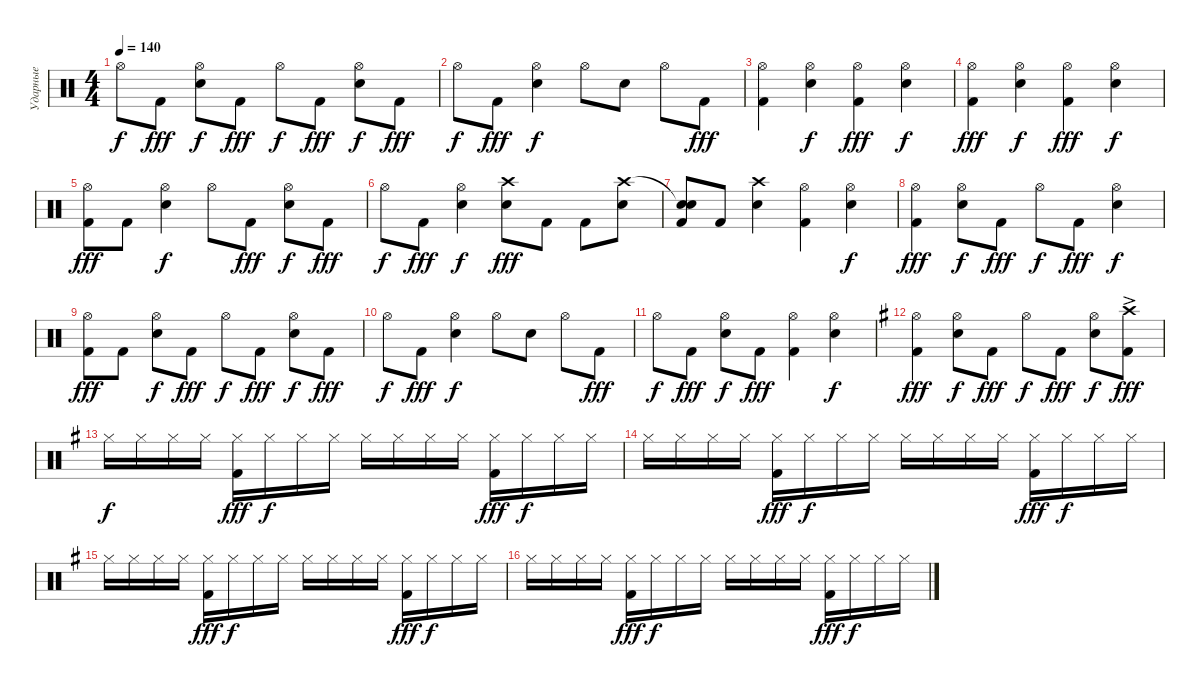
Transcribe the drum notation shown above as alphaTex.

\track ("Ударные" "Ударные") {instrument percussion}
\staff {score}
\articulation defaults
\ts (4 4)
\tempo 140
\clef neutral
\ks c "Hi-Hat (open)".8{dy f} "Kick (hit) 2".8{dy fff}
("Snare (hit) 2" "Hi-Hat (open)").8{dy f} "Kick (hit) 2".8{dy fff} "Hi-Hat (open)".8{dy f} "Kick (hit) 2".8{dy fff} ("Snare (hit) 2" "Hi-Hat (open)").8{dy f} "Kick (hit) 2".8{dy fff} |
"Hi-Hat (open)".8{dy f} "Kick (hit) 2".8{dy fff} ("Snare (hit) 2" "Hi-Hat (open)").4{dy f} "Hi-Hat (open)".8 "Snare (hit) 2".8 "Hi-Hat (open)".8 "Kick (hit) 2".8{dy fff} |
("Kick (hit) 2" "Hi-Hat (open)").4 ("Snare (hit) 2" "Hi-Hat (open)").4{dy f} ("Kick (hit) 2" "Hi-Hat (open)").4{dy fff} ("Snare (hit) 2" "Hi-Hat (open)").4{dy f} |
("Kick (hit) 2" "Hi-Hat (open)").4{dy fff} ("Snare (hit) 2" "Hi-Hat (open)").4{dy f} ("Kick (hit) 2" "Hi-Hat (open)").4{dy fff} ("Snare (hit) 2" "Hi-Hat (open)").4{dy f} |
("Kick (hit) 2" "Hi-Hat (open)").8{dy fff} "Kick (hit) 2".8 ("Snare (hit) 2" "Hi-Hat (open)").4{dy f} "Hi-Hat (open)".8 "Kick (hit) 2".8{dy fff} ("Snare (hit) 2" "Hi-Hat (open)").8{dy f} "Kick (hit) 2".8{dy fff} |
"Hi-Hat (open)".8{dy f} "Kick (hit) 2".8{dy fff} ("Snare (hit) 2" "Hi-Hat (open)").4{dy f} ("Snare (hit) 2" "Crash high (hit)").8{dy fff} "Kick (hit) 2".8 "Kick (hit) 2".8 ("Snare (hit) 2" "Crash high (hit)").8 |
("Kick (hit) 2" "Snare (hit) 2"{t} "Snare (hit)").8 "Kick (hit) 2".8 ("Snare (hit) 2" "Crash high (hit)").4 ("Kick (hit) 2" "Hi-Hat (open)").4 ("Snare (hit) 2" "Hi-Hat (open)").4{dy f} |
("Kick (hit) 2" "Hi-Hat (open)").4{dy fff} ("Snare (hit) 2" "Hi-Hat (open)").8{dy f} "Kick (hit) 2".8{dy fff} "Hi-Hat (open)".8{dy f} "Kick (hit) 2".8{dy fff} ("Snare (hit) 2" "Hi-Hat (open)").4{dy f} |
("Kick (hit) 2" "Hi-Hat (open)").8{dy fff} "Kick (hit) 2".8 ("Snare (hit) 2" "Hi-Hat (open)").8{dy f} "Kick (hit) 2".8{dy fff} "Hi-Hat (open)".8{dy f} "Kick (hit) 2".8{dy fff} ("Snare (hit) 2" "Hi-Hat (open)").8{dy f} "Kick (hit) 2".8{dy fff} |
"Hi-Hat (open)".8{dy f} "Kick (hit) 2".8{dy fff} ("Snare (hit) 2" "Hi-Hat (open)").4{dy f} "Hi-Hat (open)".8 "Snare (hit) 2".8 "Hi-Hat (open)".8 "Kick (hit) 2".8{dy fff} |
"Hi-Hat (open)".8{dy f} "Kick (hit) 2".8{dy fff} ("Snare (hit) 2" "Hi-Hat (open)").8{dy f} "Kick (hit) 2".8{dy fff} ("Kick (hit) 2" "Hi-Hat (open)").4 ("Snare (hit) 2" "Hi-Hat (open)").4{dy f} |
\ks g
("Kick (hit) 2" "Hi-Hat (open)").4{dy fff} ("Snare (hit) 2" "Hi-Hat (open)").8{dy f} "Kick (hit) 2".8{dy fff} "Hi-Hat (open)".8{dy f} "Kick (hit) 2".8{dy fff} ("Snare (hit) 2" "Hi-Hat (open)").8{dy f} ("Kick (hit) 2"{ac} "Crash high (hit)").8{dy fff} |
"Hi-Hat (closed)".16{dy f} "Hi-Hat (closed)".16 "Hi-Hat (closed)".16 "Hi-Hat (closed)".16 ("Hi-Hat (closed)" "Kick (hit) 2").16{dy fff} "Hi-Hat (closed)".16{dy f} "Hi-Hat (closed)".16 "Hi-Hat (closed)".16 "Hi-Hat (closed)".16 "Hi-Hat (closed)".16 "Hi-Hat (closed)".16 "Hi-Hat (closed)".16 ("Hi-Hat (closed)" "Kick (hit) 2").16{dy fff} "Hi-Hat (closed)".16{dy f} "Hi-Hat (closed)".16 "Hi-Hat (closed)".16 |
"Hi-Hat (closed)".16 "Hi-Hat (closed)".16 "Hi-Hat (closed)".16 "Hi-Hat (closed)".16 ("Hi-Hat (closed)" "Kick (hit) 2").16{dy fff} "Hi-Hat (closed)".16{dy f} "Hi-Hat (closed)".16 "Hi-Hat (closed)".16 "Hi-Hat (closed)".16 "Hi-Hat (closed)".16 "Hi-Hat (closed)".16 "Hi-Hat (closed)".16 ("Hi-Hat (closed)" "Kick (hit) 2").16{dy fff} "Hi-Hat (closed)".16{dy f} "Hi-Hat (closed)".16 "Hi-Hat (closed)".16 |
"Hi-Hat (closed)".16 "Hi-Hat (closed)".16 "Hi-Hat (closed)".16 "Hi-Hat (closed)".16 ("Hi-Hat (closed)" "Kick (hit) 2").16{dy fff} "Hi-Hat (closed)".16{dy f} "Hi-Hat (closed)".16 "Hi-Hat (closed)".16 "Hi-Hat (closed)".16 "Hi-Hat (closed)".16 "Hi-Hat (closed)".16 "Hi-Hat (closed)".16 ("Hi-Hat (closed)" "Kick (hit) 2").16{dy fff} "Hi-Hat (closed)".16{dy f} "Hi-Hat (closed)".16 "Hi-Hat (closed)".16 |
"Hi-Hat (closed)".16 "Hi-Hat (closed)".16 "Hi-Hat (closed)".16 "Hi-Hat (closed)".16 ("Hi-Hat (closed)" "Kick (hit) 2").16{dy fff} "Hi-Hat (closed)".16{dy f} "Hi-Hat (closed)".16 "Hi-Hat (closed)".16 "Hi-Hat (closed)".16 "Hi-Hat (closed)".16 "Hi-Hat (closed)".16 "Hi-Hat (closed)".16 ("Hi-Hat (closed)" "Kick (hit) 2").16{dy fff} "Hi-Hat (closed)".16{dy f} "Hi-Hat (closed)".16 "Hi-Hat (closed)".16
